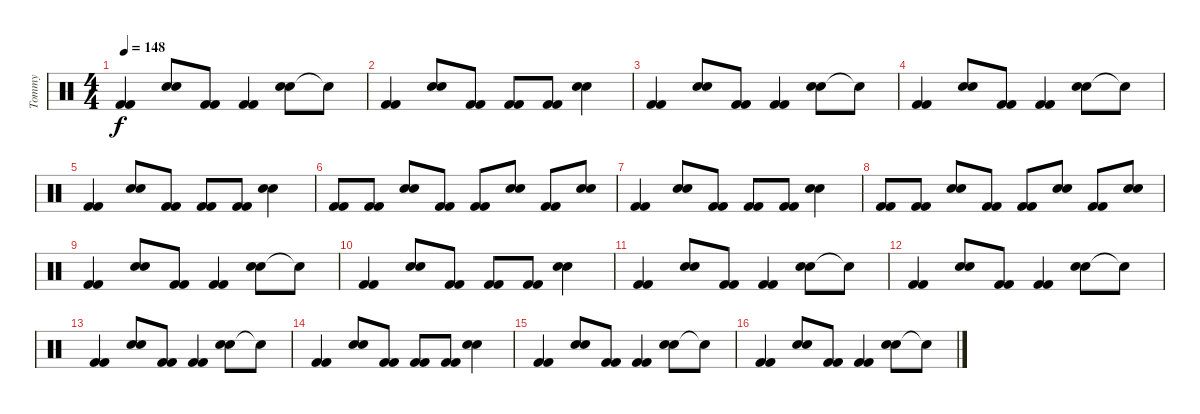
\track ("Tommy" "Tommy") {instrument percussion}
\staff {score}
\articulation defaults
\ts (4 4)
\tempo 148
\clef neutral
\ks c
("Kick (hit) 2" "Kick (hit) 2").4{dy f} ("Snare (hit) 2" "Snare (hit) 2").8 ("Kick (hit) 2" "Kick (hit) 2").8 ("Kick (hit) 2" "Kick (hit) 2").4 ("Snare (hit) 2" "Snare (hit) 2").8 "Snare (hit)"{t}.8 |
("Kick (hit) 2" "Kick (hit) 2").4 ("Snare (hit) 2" "Snare (hit) 2").8 ("Kick (hit) 2" "Kick (hit) 2").8 ("Kick (hit) 2" "Kick (hit) 2").8 ("Kick (hit) 2" "Kick (hit) 2").8 ("Snare (hit) 2" "Snare (hit) 2").4 |
("Kick (hit) 2" "Kick (hit) 2").4 ("Snare (hit) 2" "Snare (hit) 2").8 ("Kick (hit) 2" "Kick (hit) 2").8 ("Kick (hit) 2" "Kick (hit) 2").4 ("Snare (hit) 2" "Snare (hit) 2").8 "Snare (hit)"{t}.8 |
("Kick (hit) 2" "Kick (hit) 2").4 ("Snare (hit) 2" "Snare (hit) 2").8 ("Kick (hit) 2" "Kick (hit) 2").8 ("Kick (hit) 2" "Kick (hit) 2").4 ("Snare (hit) 2" "Snare (hit) 2").8 "Snare (hit)"{t}.8 |
("Kick (hit) 2" "Kick (hit) 2").4 ("Snare (hit) 2" "Snare (hit) 2").8 ("Kick (hit) 2" "Kick (hit) 2").8 ("Kick (hit) 2" "Kick (hit) 2").8 ("Kick (hit) 2" "Kick (hit) 2").8 ("Snare (hit) 2" "Snare (hit) 2").4 |
("Kick (hit) 2" "Kick (hit) 2").8 ("Kick (hit) 2" "Kick (hit) 2").8 ("Snare (hit) 2" "Snare (hit) 2").8 ("Kick (hit) 2" "Kick (hit) 2").8 ("Kick (hit) 2" "Kick (hit) 2").8 ("Snare (hit) 2" "Snare (hit) 2").8 ("Kick (hit) 2" "Kick (hit) 2").8 ("Snare (hit) 2" "Snare (hit) 2").8 |
("Kick (hit) 2" "Kick (hit) 2").4 ("Snare (hit) 2" "Snare (hit) 2").8 ("Kick (hit) 2" "Kick (hit) 2").8 ("Kick (hit) 2" "Kick (hit) 2").8 ("Kick (hit) 2" "Kick (hit) 2").8 ("Snare (hit) 2" "Snare (hit) 2").4 |
("Kick (hit) 2" "Kick (hit) 2").8 ("Kick (hit) 2" "Kick (hit) 2").8 ("Snare (hit) 2" "Snare (hit) 2").8 ("Kick (hit) 2" "Kick (hit) 2").8 ("Kick (hit) 2" "Kick (hit) 2").8 ("Snare (hit) 2" "Snare (hit) 2").8 ("Kick (hit) 2" "Kick (hit) 2").8 ("Snare (hit) 2" "Snare (hit) 2").8 |
("Kick (hit) 2" "Kick (hit) 2").4 ("Snare (hit) 2" "Snare (hit) 2").8 ("Kick (hit) 2" "Kick (hit) 2").8 ("Kick (hit) 2" "Kick (hit) 2").4 ("Snare (hit) 2" "Snare (hit) 2").8 "Snare (hit)"{t}.8 |
("Kick (hit) 2" "Kick (hit) 2").4 ("Snare (hit) 2" "Snare (hit) 2").8 ("Kick (hit) 2" "Kick (hit) 2").8 ("Kick (hit) 2" "Kick (hit) 2").8 ("Kick (hit) 2" "Kick (hit) 2").8 ("Snare (hit) 2" "Snare (hit) 2").4 |
("Kick (hit) 2" "Kick (hit) 2").4 ("Snare (hit) 2" "Snare (hit) 2").8 ("Kick (hit) 2" "Kick (hit) 2").8 ("Kick (hit) 2" "Kick (hit) 2").4 ("Snare (hit) 2" "Snare (hit) 2").8 "Snare (hit)"{t}.8 |
("Kick (hit) 2" "Kick (hit) 2").4 ("Snare (hit) 2" "Snare (hit) 2").8 ("Kick (hit) 2" "Kick (hit) 2").8 ("Kick (hit) 2" "Kick (hit) 2").4 ("Snare (hit) 2" "Snare (hit) 2").8 "Snare (hit)"{t}.8 |
("Kick (hit) 2" "Kick (hit) 2").4 ("Snare (hit) 2" "Snare (hit) 2").8 ("Kick (hit) 2" "Kick (hit) 2").8 ("Kick (hit) 2" "Kick (hit) 2").4 ("Snare (hit) 2" "Snare (hit) 2").8 "Snare (hit)"{t}.8 |
("Kick (hit) 2" "Kick (hit) 2").4 ("Snare (hit) 2" "Snare (hit) 2").8 ("Kick (hit) 2" "Kick (hit) 2").8 ("Kick (hit) 2" "Kick (hit) 2").8 ("Kick (hit) 2" "Kick (hit) 2").8 ("Snare (hit) 2" "Snare (hit) 2").4 |
("Kick (hit) 2" "Kick (hit) 2").4 ("Snare (hit) 2" "Snare (hit) 2").8 ("Kick (hit) 2" "Kick (hit) 2").8 ("Kick (hit) 2" "Kick (hit) 2").4 ("Snare (hit) 2" "Snare (hit) 2").8 "Snare (hit)"{t}.8 |
("Kick (hit) 2" "Kick (hit) 2").4 ("Snare (hit) 2" "Snare (hit) 2").8 ("Kick (hit) 2" "Kick (hit) 2").8 ("Kick (hit) 2" "Kick (hit) 2").4 ("Snare (hit) 2" "Snare (hit) 2").8 "Snare (hit)"{t}.8
